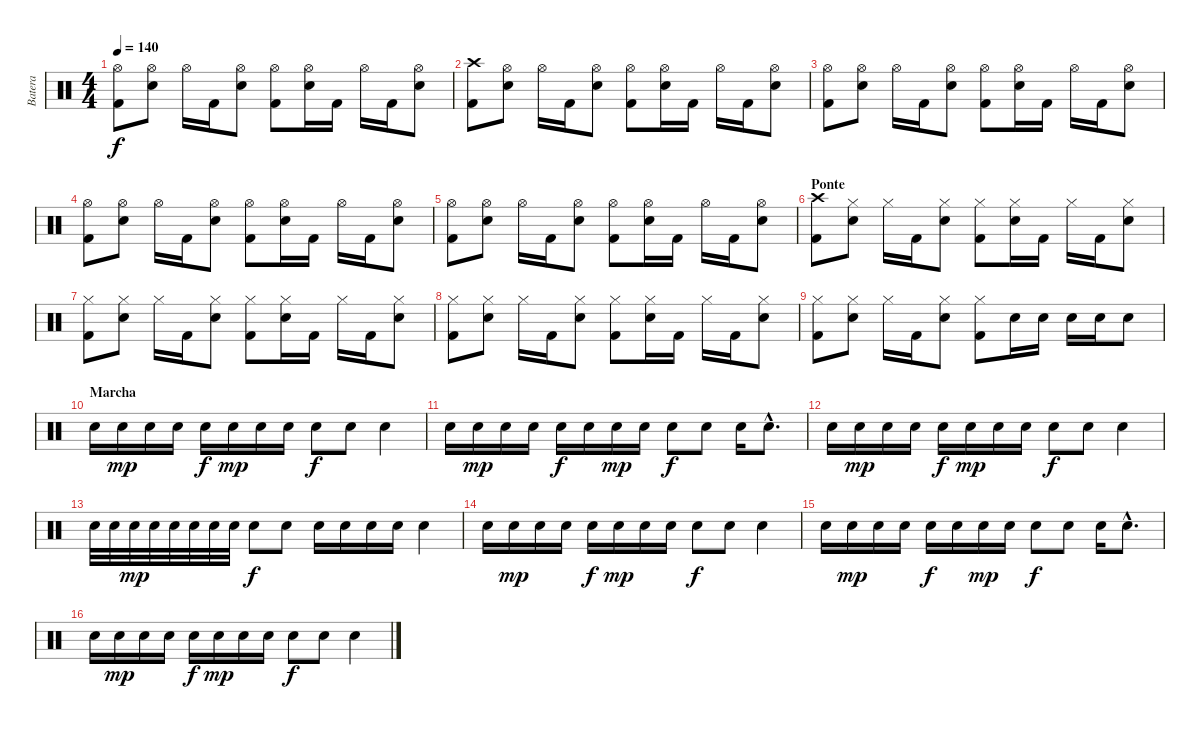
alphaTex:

\track ("Batera" "Batera") {instrument percussion}
\staff {score}
\articulation defaults
\ts (4 4)
\tempo 140
\clef neutral
\ks c
("Hi-Hat (open)" "Kick (hit) 2").8{dy f} ("Hi-Hat (open)" "Snare (hit) 2").8 "Hi-Hat (open)".16 "Kick (hit) 2".16 ("Hi-Hat (open)" "Snare (hit) 2").8 ("Hi-Hat (open)" "Kick (hit) 2").8 ("Hi-Hat (open)" "Snare (hit) 2").16 "Kick (hit) 2".16 "Hi-Hat (open)".16 "Kick (hit) 2".16 ("Hi-Hat (open)" "Snare (hit) 2").8 |
("Crash high (hit)" "Kick (hit) 2").8 ("Hi-Hat (open)" "Snare (hit) 2").8 "Hi-Hat (open)".16 "Kick (hit) 2".16 ("Hi-Hat (open)" "Snare (hit) 2").8 ("Hi-Hat (open)" "Kick (hit) 2").8 ("Hi-Hat (open)" "Snare (hit) 2").16 "Kick (hit) 2".16 "Hi-Hat (open)".16 "Kick (hit) 2".16 ("Hi-Hat (open)" "Snare (hit) 2").8 |
("Hi-Hat (open)" "Kick (hit) 2").8 ("Hi-Hat (open)" "Snare (hit) 2").8 "Hi-Hat (open)".16 "Kick (hit) 2".16 ("Hi-Hat (open)" "Snare (hit) 2").8 ("Hi-Hat (open)" "Kick (hit) 2").8 ("Hi-Hat (open)" "Snare (hit) 2").16 "Kick (hit) 2".16 "Hi-Hat (open)".16 "Kick (hit) 2".16 ("Hi-Hat (open)" "Snare (hit) 2").8 |
("Hi-Hat (open)" "Kick (hit) 2").8 ("Hi-Hat (open)" "Snare (hit) 2").8 "Hi-Hat (open)".16 "Kick (hit) 2".16 ("Hi-Hat (open)" "Snare (hit) 2").8 ("Hi-Hat (open)" "Kick (hit) 2").8 ("Hi-Hat (open)" "Snare (hit) 2").16 "Kick (hit) 2".16 "Hi-Hat (open)".16 "Kick (hit) 2".16 ("Hi-Hat (open)" "Snare (hit) 2").8 |
("Hi-Hat (open)" "Kick (hit) 2").8 ("Hi-Hat (open)" "Snare (hit) 2").8 "Hi-Hat (open)".16 "Kick (hit) 2".16 ("Hi-Hat (open)" "Snare (hit) 2").8 ("Hi-Hat (open)" "Kick (hit) 2").8 ("Hi-Hat (open)" "Snare (hit) 2").16 "Kick (hit) 2".16 "Hi-Hat (open)".16 "Kick (hit) 2".16 ("Hi-Hat (open)" "Snare (hit) 2").8 |
\section ("" "Ponte")
("Crash high (hit)" "Kick (hit) 2").8 ("Hi-Hat (closed)" "Snare (hit) 2").8 "Hi-Hat (closed)".16 "Kick (hit) 2".16 ("Hi-Hat (closed)" "Snare (hit) 2").8 ("Hi-Hat (closed)" "Kick (hit) 2").8 ("Hi-Hat (closed)" "Snare (hit) 2").16 "Kick (hit) 2".16 "Hi-Hat (closed)".16 "Kick (hit) 2".16 ("Hi-Hat (closed)" "Snare (hit) 2").8 |
("Hi-Hat (closed)" "Kick (hit) 2").8 ("Hi-Hat (closed)" "Snare (hit) 2").8 "Hi-Hat (closed)".16 "Kick (hit) 2".16 ("Hi-Hat (closed)" "Snare (hit) 2").8 ("Hi-Hat (closed)" "Kick (hit) 2").8 ("Hi-Hat (closed)" "Snare (hit) 2").16 "Kick (hit) 2".16 "Hi-Hat (closed)".16 "Kick (hit) 2".16 ("Hi-Hat (closed)" "Snare (hit) 2").8 |
("Hi-Hat (closed)" "Kick (hit) 2").8 ("Hi-Hat (closed)" "Snare (hit) 2").8 "Hi-Hat (closed)".16 "Kick (hit) 2".16 ("Hi-Hat (closed)" "Snare (hit) 2").8 ("Hi-Hat (closed)" "Kick (hit) 2").8 ("Hi-Hat (closed)" "Snare (hit) 2").16 "Kick (hit) 2".16 "Hi-Hat (closed)".16 "Kick (hit) 2".16 ("Hi-Hat (closed)" "Snare (hit) 2").8 |
("Hi-Hat (closed)" "Kick (hit) 2").8 ("Hi-Hat (closed)" "Snare (hit) 2").8 "Hi-Hat (closed)".16 "Kick (hit) 2".16 ("Hi-Hat (closed)" "Snare (hit) 2").8 ("Hi-Hat (closed)" "Kick (hit) 2").8 "Snare (hit) 2".16 "Snare (hit) 2".16 "Snare (hit) 2".16 "Snare (hit) 2".16 "Snare (hit) 2".8 |
\section ("" "Marcha")
"Snare (hit) 2".16 "Snare (hit) 2".16{dy mp} "Snare (hit) 2".16 "Snare (hit) 2".16 "Snare (hit) 2".16{dy f} "Snare (hit) 2".16{dy mp} "Snare (hit) 2".16 "Snare (hit) 2".16 "Snare (hit) 2".8{dy f} "Snare (hit) 2".8 "Snare (hit) 2".4 |
"Snare (hit) 2".16 "Snare (hit) 2".16{dy mp} "Snare (hit) 2".16 "Snare (hit) 2".16 "Snare (hit) 2".16{dy f} "Snare (hit) 2".16 "Snare (hit) 2".16{dy mp} "Snare (hit) 2".16 "Snare (hit) 2".8{dy f} "Snare (hit) 2".8 "Snare (hit) 2".16 "Snare (hit) 2"{hac}.8{d} |
"Snare (hit) 2".16 "Snare (hit) 2".16{dy mp} "Snare (hit) 2".16 "Snare (hit) 2".16 "Snare (hit) 2".16{dy f} "Snare (hit) 2".16{dy mp} "Snare (hit) 2".16 "Snare (hit) 2".16 "Snare (hit) 2".8{dy f} "Snare (hit) 2".8 "Snare (hit) 2".4 |
"Snare (hit) 2".32 "Snare (hit) 2".32 "Snare (hit) 2".32{dy mp} "Snare (hit) 2".32 "Snare (hit) 2".32 "Snare (hit) 2".32 "Snare (hit) 2".32 "Snare (hit) 2".32 "Snare (hit) 2".8{dy f} "Snare (hit) 2".8 "Snare (hit) 2".16 "Snare (hit) 2".16 "Snare (hit) 2".16 "Snare (hit) 2".16 "Snare (hit) 2".4 |
"Snare (hit) 2".16 "Snare (hit) 2".16{dy mp} "Snare (hit) 2".16 "Snare (hit) 2".16 "Snare (hit) 2".16{dy f} "Snare (hit) 2".16{dy mp} "Snare (hit) 2".16 "Snare (hit) 2".16 "Snare (hit) 2".8{dy f} "Snare (hit) 2".8 "Snare (hit) 2".4 |
"Snare (hit) 2".16 "Snare (hit) 2".16{dy mp} "Snare (hit) 2".16 "Snare (hit) 2".16 "Snare (hit) 2".16{dy f} "Snare (hit) 2".16 "Snare (hit) 2".16{dy mp} "Snare (hit) 2".16 "Snare (hit) 2".8{dy f} "Snare (hit) 2".8 "Snare (hit) 2".16 "Snare (hit) 2"{hac}.8{d} |
"Snare (hit) 2".16 "Snare (hit) 2".16{dy mp} "Snare (hit) 2".16 "Snare (hit) 2".16 "Snare (hit) 2".16{dy f} "Snare (hit) 2".16{dy mp} "Snare (hit) 2".16 "Snare (hit) 2".16 "Snare (hit) 2".8{dy f} "Snare (hit) 2".8 "Snare (hit) 2".4
